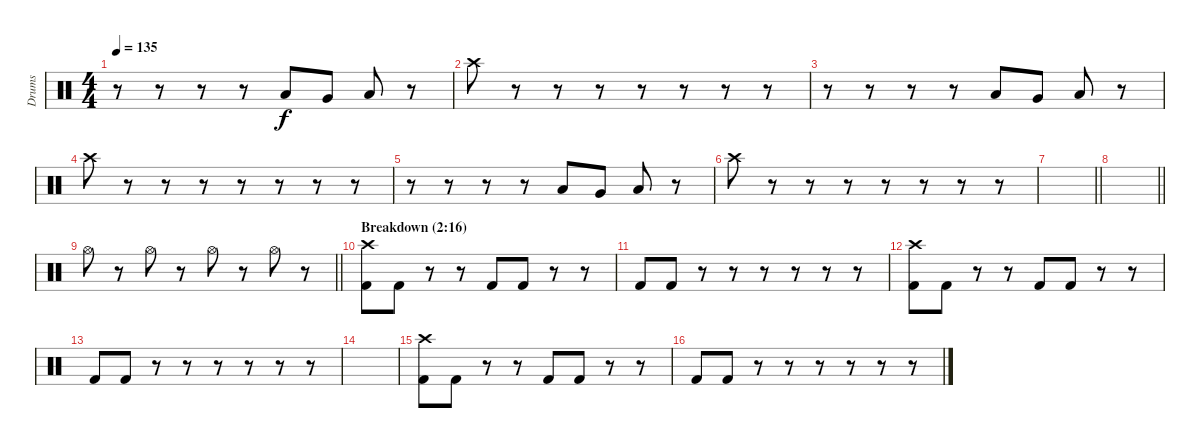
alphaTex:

\track ("Drums" "Drums") {instrument percussion}
\staff {score}
\articulation defaults
\ts (4 4)
\tempo 135
\clef neutral
\ks c
r.8{dy f} r.8 r.8 r.8 "Low Tom (hit)".8 "Very Low Tom (hit)".8 "Low Floor Tom (hit)".8 r.8 |
"Crash high (hit)".8 r.8 r.8 r.8 r.8 r.8 r.8 r.8 |
r.8 r.8 r.8 r.8 "Low Tom (hit)".8 "Very Low Tom (hit)".8 "Low Floor Tom (hit)".8 r.8 |
"Crash high (hit)".8 r.8 r.8 r.8 r.8 r.8 r.8 r.8 |
r.8 r.8 r.8 r.8 "Low Tom (hit)".8 "Very Low Tom (hit)".8 "Low Floor Tom (hit)".8 r.8 |
"Crash high (hit)".8 r.8 r.8 r.8 r.8 r.8 r.8 r.8 |
\barLineRight lightlight
|
\barLineRight lightlight
|
\barLineRight lightlight "Hi-Hat (open)".8
r.8 "Hi-Hat (open)".8 r.8 "Hi-Hat (open)".8 r.8 "Hi-Hat (open)".8 r.8 |
\section ("" "Breakdown (2:16)")
("Crash high (hit)" "Kick (hit) 2").8 "Kick (hit) 2".8 r.8 r.8 "Kick (hit) 2".8 "Kick (hit) 2".8 r.8 r.8 |
"Kick (hit) 2".8 "Kick (hit) 2".8 r.8 r.8 r.8 r.8 r.8 r.8 |
("Crash high (hit)" "Kick (hit) 2").8 "Kick (hit) 2".8 r.8 r.8 "Kick (hit) 2".8 "Kick (hit) 2".8 r.8 r.8 |
"Kick (hit) 2".8 "Kick (hit) 2".8 r.8 r.8 r.8 r.8 r.8 r.8 |
|
("Crash high (hit)" "Kick (hit) 2").8 "Kick (hit) 2".8 r.8 r.8 "Kick (hit) 2".8 "Kick (hit) 2".8 r.8 r.8 |
"Kick (hit) 2".8 "Kick (hit) 2".8 r.8 r.8 r.8 r.8 r.8 r.8
